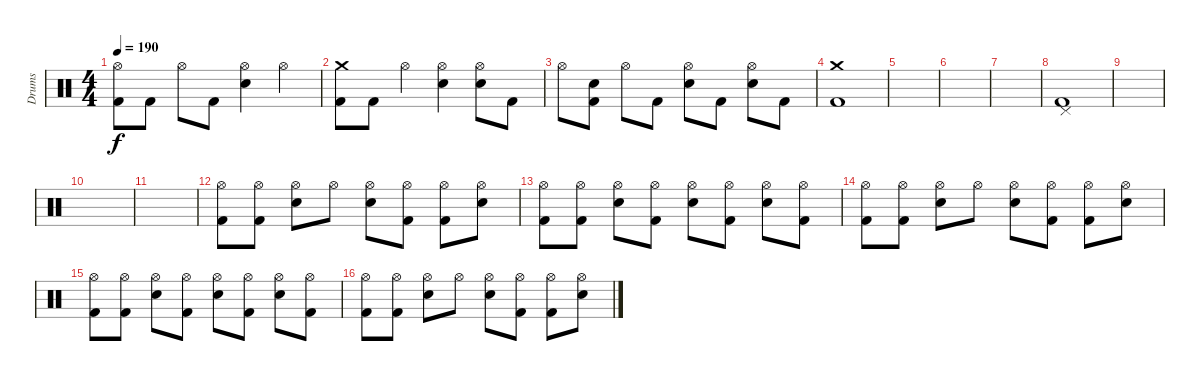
\track ("Drums" "Drums") {instrument percussion}
\staff {score}
\articulation defaults
\ts (4 4)
\tempo 190
\clef neutral
\ks c
("Kick (hit) 2" "Hi-Hat (open)").8{dy f} "Kick (hit) 2".8 "Hi-Hat (open)".8 "Kick (hit) 2".8 ("Snare (hit) 2" "Hi-Hat (open)").4 "Hi-Hat (open)".4 |
("Kick (hit) 2" "Crash medium (hit)").8 "Kick (hit) 2".8 "Hi-Hat (open)".4 ("Snare (hit) 2" "Hi-Hat (open)").4 ("Snare (hit) 2" "Hi-Hat (open)").8 "Kick (hit) 2".8 |
"Hi-Hat (open)".8 ("Kick (hit) 2" "Snare (hit) 2").8 "Hi-Hat (open)".8 "Kick (hit) 2".8 ("Snare (hit) 2" "Hi-Hat (open)").8 "Kick (hit) 2".8 ("Snare (hit) 2" "Hi-Hat (open)").8 "Kick (hit) 2".8 |
("Kick (hit) 2" "Crash medium (hit)").1 |
|
|
|
("Kick (hit) 2" "Pedal Hi-Hat (hit)").1 |
|
|
|
("Kick (hit) 2" "Hi-Hat (open)").8 ("Kick (hit) 2" "Hi-Hat (open)").8 ("Snare (hit) 2" "Hi-Hat (open)").8 "Hi-Hat (open)".8 ("Snare (hit) 2" "Hi-Hat (open)").8 ("Kick (hit) 2" "Hi-Hat (open)").8 ("Kick (hit) 2" "Hi-Hat (open)").8 ("Snare (hit) 2" "Hi-Hat (open)").8 |
("Kick (hit) 2" "Hi-Hat (open)").8 ("Kick (hit) 2" "Hi-Hat (open)").8 ("Snare (hit) 2" "Hi-Hat (open)").8 ("Kick (hit) 2" "Hi-Hat (open)").8 ("Snare (hit) 2" "Hi-Hat (open)").8 ("Kick (hit) 2" "Hi-Hat (open)").8 ("Snare (hit) 2" "Hi-Hat (open)").8 ("Kick (hit) 2" "Hi-Hat (open)").8 |
("Kick (hit) 2" "Hi-Hat (open)").8 ("Kick (hit) 2" "Hi-Hat (open)").8 ("Snare (hit) 2" "Hi-Hat (open)").8 "Hi-Hat (open)".8 ("Snare (hit) 2" "Hi-Hat (open)").8 ("Kick (hit) 2" "Hi-Hat (open)").8 ("Kick (hit) 2" "Hi-Hat (open)").8 ("Snare (hit) 2" "Hi-Hat (open)").8 |
("Kick (hit) 2" "Hi-Hat (open)").8 ("Kick (hit) 2" "Hi-Hat (open)").8 ("Snare (hit) 2" "Hi-Hat (open)").8 ("Kick (hit) 2" "Hi-Hat (open)").8 ("Snare (hit) 2" "Hi-Hat (open)").8 ("Kick (hit) 2" "Hi-Hat (open)").8 ("Snare (hit) 2" "Hi-Hat (open)").8 ("Kick (hit) 2" "Hi-Hat (open)").8 |
("Kick (hit) 2" "Hi-Hat (open)").8 ("Kick (hit) 2" "Hi-Hat (open)").8 ("Snare (hit) 2" "Hi-Hat (open)").8 "Hi-Hat (open)".8 ("Snare (hit) 2" "Hi-Hat (open)").8 ("Kick (hit) 2" "Hi-Hat (open)").8 ("Kick (hit) 2" "Hi-Hat (open)").8 ("Snare (hit) 2" "Hi-Hat (open)").8
